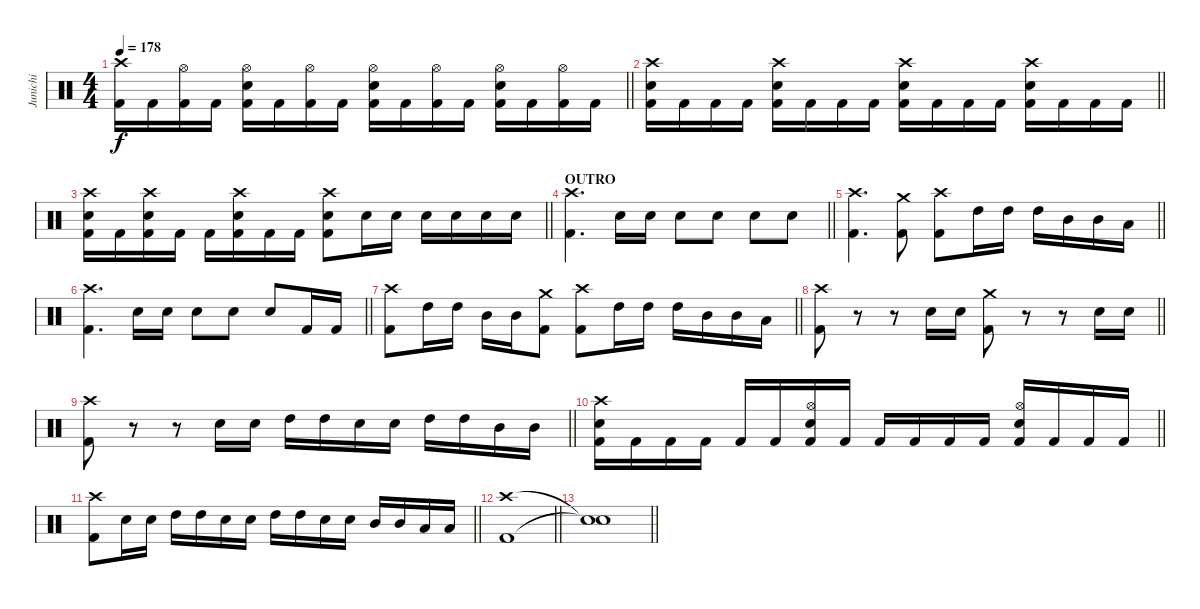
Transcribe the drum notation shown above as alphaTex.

\track ("Junichi" "Junichi") {instrument percussion}
\staff {score}
\articulation defaults
\ts (4 4)
\tempo 178
\clef neutral
\barLineRight lightlight
\ks c
("Crash high (hit)" "Kick (hit) 2").16{dy f} "Kick (hit) 2".16 ("Hi-Hat (open)" "Kick (hit) 2").16 "Kick (hit) 2".16 ("Hi-Hat (open)" "Snare (hit) 2" "Kick (hit) 2").16 "Kick (hit) 2".16 ("Hi-Hat (open)" "Kick (hit) 2").16 "Kick (hit) 2".16 ("Hi-Hat (open)" "Snare (hit) 2" "Kick (hit) 2").16 "Kick (hit) 2".16 ("Hi-Hat (open)" "Kick (hit) 2").16 "Kick (hit) 2".16 ("Hi-Hat (open)" "Snare (hit) 2" "Kick (hit) 2").16 "Kick (hit) 2".16 ("Hi-Hat (open)" "Kick (hit) 2").16 "Kick (hit) 2".16 |
\barLineRight lightlight
("Crash high (hit)" "Snare (hit) 2" "Kick (hit) 2").16 "Kick (hit) 2".16 "Kick (hit) 2".16 "Kick (hit) 2".16 ("Crash high (hit)" "Snare (hit) 2" "Kick (hit) 2").16 "Kick (hit) 2".16 "Kick (hit) 2".16 "Kick (hit) 2".16 ("Crash high (hit)" "Snare (hit) 2" "Kick (hit) 2").16 "Kick (hit) 2".16 "Kick (hit) 2".16 "Kick (hit) 2".16 ("Crash high (hit)" "Snare (hit) 2" "Kick (hit) 2").16 "Kick (hit) 2".16 "Kick (hit) 2".16 "Kick (hit) 2".16 |
\barLineRight lightlight
("Crash high (hit)" "Snare (hit) 2" "Kick (hit) 2").16 "Kick (hit) 2".16 ("Crash high (hit)" "Snare (hit) 2" "Kick (hit) 2").16 "Kick (hit) 2".16 "Kick (hit) 2".16 ("Crash high (hit)" "Snare (hit) 2" "Kick (hit) 2").16 "Kick (hit) 2".16 "Kick (hit) 2".16 ("Crash high (hit)" "Snare (hit) 2" "Kick (hit) 2").8 "Snare (hit) 2".16 "Snare (hit) 2".16 "Snare (hit) 2".16 "Snare (hit) 2".16 "Snare (hit) 2".16 "Snare (hit) 2".16 |
\section ("" "OUTRO")
\barLineRight lightlight
("Crash high (hit)" "Kick (hit) 2").4{d} "Snare (hit) 2".16 "Snare (hit) 2".16 "Snare (hit) 2".8 "Snare (hit) 2".8 "Snare (hit) 2".8 "Snare (hit) 2".8 |
\barLineRight lightlight
("Crash high (hit)" "Kick (hit) 2").4{d} ("Crash medium (hit)" "Kick (hit) 2").8 ("Crash high (hit)" "Kick (hit) 2").8 "High Tom (hit)".16 "High Tom (hit)".16 "High Tom (hit)".16 "Mid Tom (hit)".16 "Mid Tom (hit)".16 "Low Tom (hit)".16 |
\barLineRight lightlight
("Crash high (hit)" "Kick (hit) 2").4{d} "Snare (hit) 2".16 "Snare (hit) 2".16 "Snare (hit) 2".8 "Snare (hit) 2".8 "Snare (hit) 2".8 "Kick (hit) 2".16 "Kick (hit) 2".16 |
\barLineRight lightlight
("Crash high (hit)" "Kick (hit) 2").8 "High Tom (hit)".16 "High Tom (hit)".16 "Mid Tom (hit)".16 "Mid Tom (hit)".16 ("Crash medium (hit)" "Kick (hit) 2").8 ("Crash high (hit)" "Kick (hit) 2").8 "High Tom (hit)".16 "High Tom (hit)".16 "High Tom (hit)".16 "Mid Tom (hit)".16 "Mid Tom (hit)".16 "Low Tom (hit)".16 |
\barLineRight lightlight
("Crash high (hit)" "Kick (hit) 2").8 r.8 r.8 "Snare (hit) 2".16 "Snare (hit) 2".16 ("Crash medium (hit)" "Kick (hit) 2").8 r.8 r.8 "Snare (hit) 2".16 "Snare (hit) 2".16 |
\barLineRight lightlight
("Crash high (hit)" "Kick (hit) 2").8 r.8 r.8 "Snare (hit) 2".16 "Snare (hit) 2".16 "High Tom (hit)".16 "High Tom (hit)".16 "Snare (hit) 2".16 "Snare (hit) 2".16 "High Tom (hit)".16 "High Tom (hit)".16 "Mid Tom (hit)".16 "Mid Tom (hit)".16 |
\barLineRight lightlight
("Crash high (hit)" "Snare (hit) 2" "Kick (hit) 2").16 "Kick (hit) 2".16 "Kick (hit) 2".16 "Kick (hit) 2".16 "Kick (hit) 2".16 "Kick (hit) 2".16 ("Hi-Hat (open)" "Snare (hit) 2" "Kick (hit) 2").16 "Kick (hit) 2".16 "Kick (hit) 2".16 "Kick (hit) 2".16 "Kick (hit) 2".16 "Kick (hit) 2".16 ("Hi-Hat (open)" "Snare (hit) 2" "Kick (hit) 2").16 "Kick (hit) 2".16 "Kick (hit) 2".16 "Kick (hit) 2".16 |
\barLineRight lightlight
("Crash high (hit)" "Kick (hit) 2").8 "Snare (hit) 2".16 "Snare (hit) 2".16 "High Tom (hit)".16 "High Tom (hit)".16 "Snare (hit) 2".16 "Snare (hit) 2".16 "High Tom (hit)".16 "High Tom (hit)".16 "Snare (hit) 2".16 "Snare (hit) 2".16 "Mid Tom (hit)".16 "Mid Tom (hit)".16 "Low Tom (hit)".16 "Low Tom (hit)".16 |
\barLineRight lightlight
("Crash high (hit)" "Kick (hit) 2").1 |
\barLineRight lightlight
("Snare (hit)"{t} "Snare (hit)"{t}).1
